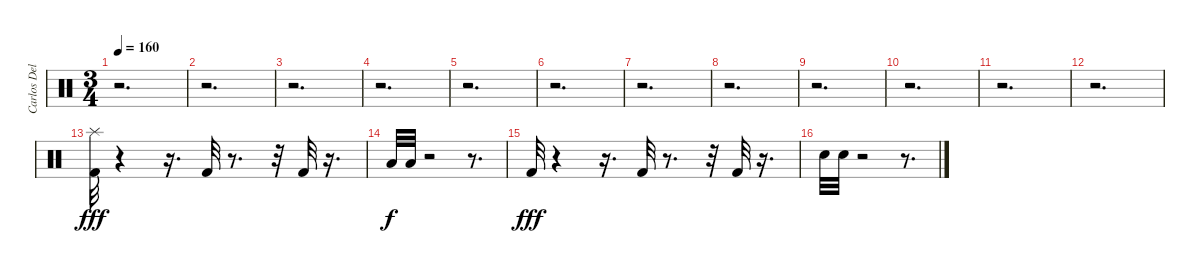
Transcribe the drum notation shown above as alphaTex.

\track ("Carlos Delgado" "Carlos Del") {instrument percussion}
\staff {score}
\articulation defaults
\ts (3 4)
\tempo 160
\clef neutral
\ks c
r.2{d dy f} |
r.2{d} |
r.2{d} |
r.2{d} |
r.2{d} |
r.2{d} |
r.2{d} |
r.2{d} |
r.2{d} |
r.2{d} |
r.2{d} |
r.2{d} |
("Splash (hit)" "Kick (hit) 2").32{dy fff} r.4 r.16{d} "Kick (hit) 2".32 r.8{d} r.32 "Kick (hit) 2".32 r.16{d} |
"Low Floor Tom (hit)".32{dy f} "Low Floor Tom (hit)".32 r.2 r.8{d} |
"Kick (hit) 2".32{dy fff} r.4 r.16{d} "Kick (hit) 2".32 r.8{d} r.32 "Kick (hit) 2".32 r.16{d} |
"Electric Snare (hit)".32 "Electric Snare (hit)".32 r.2 r.8{d}
